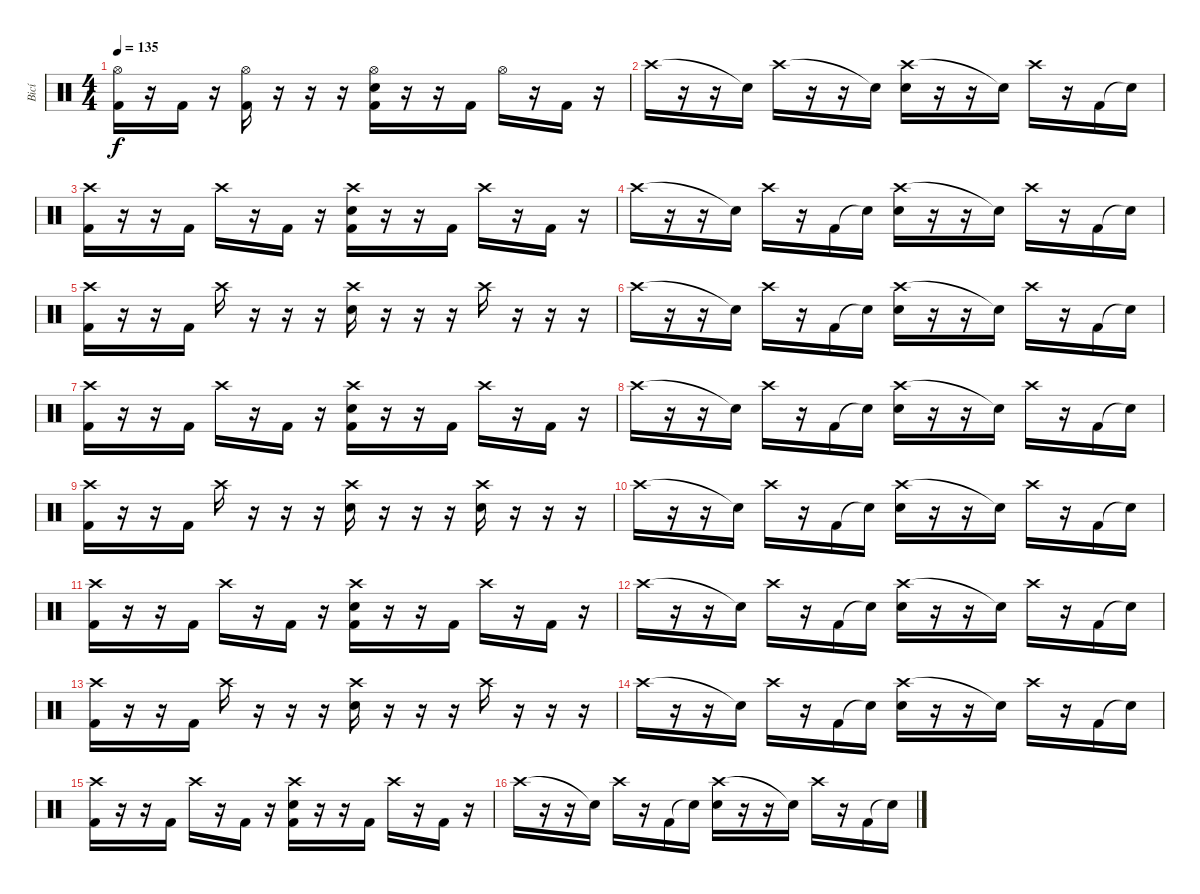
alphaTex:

\track ("Bicí" "Bicí") {instrument percussion}
\staff {score}
\articulation defaults
\ts (4 4)
\tempo 135
\clef neutral
\ks c
("Hi-Hat (open)" "Kick (hit) 2").16{dy f} r.16 "Kick (hit) 2".16 r.16 ("Hi-Hat (open)" "Kick (hit) 2").16 r.16 r.16 r.16 ("Hi-Hat (open)" "Electric Snare (hit)" "Kick (hit) 2").16 r.16 r.16 "Kick (hit) 2".16 "Hi-Hat (open)".16 r.16 "Kick (hit) 2".16 r.16 |
"Crash high (hit)".16 r.16 r.16 "Snare (hit)"{t}.16 "Crash high (hit)".16 r.16 r.16 "Snare (hit)"{t}.16 ("Crash high (hit)" "Electric Snare (hit)").16 r.16 r.16 "Snare (hit)"{t}.16 "Crash high (hit)".16 r.16 "Kick (hit) 2".16 "Snare (hit)"{t}.16 |
("Crash high (hit)" "Kick (hit) 2").16 r.16 r.16 "Kick (hit) 2".16 "Crash high (hit)".16 r.16 "Kick (hit) 2".16 r.16 ("Crash high (hit)" "Electric Snare (hit)" "Kick (hit) 2").16 r.16 r.16 "Kick (hit) 2".16 "Crash high (hit)".16 r.16 "Kick (hit) 2".16 r.16 |
"Crash high (hit)".16 r.16 r.16 "Snare (hit)"{t}.16 "Crash high (hit)".16 r.16 "Kick (hit) 2".16 "Snare (hit)"{t}.16 ("Crash high (hit)" "Electric Snare (hit)").16 r.16 r.16 "Snare (hit)"{t}.16 "Crash high (hit)".16 r.16 "Kick (hit) 2".16 "Snare (hit)"{t}.16 |
("Crash high (hit)" "Kick (hit) 2").16 r.16 r.16 "Kick (hit) 2".16 "Crash high (hit)".16 r.16 r.16 r.16 ("Crash high (hit)" "Electric Snare (hit)").16 r.16 r.16 r.16 "Crash high (hit)".16 r.16 r.16 r.16 |
"Crash high (hit)".16 r.16 r.16 "Snare (hit)"{t}.16 "Crash high (hit)".16 r.16 "Kick (hit) 2".16 "Snare (hit)"{t}.16 ("Crash high (hit)" "Electric Snare (hit)").16 r.16 r.16 "Snare (hit)"{t}.16 "Crash high (hit)".16 r.16 "Kick (hit) 2".16 "Snare (hit)"{t}.16 |
("Crash high (hit)" "Kick (hit) 2").16 r.16 r.16 "Kick (hit) 2".16 "Crash high (hit)".16 r.16 "Kick (hit) 2".16 r.16 ("Crash high (hit)" "Electric Snare (hit)" "Kick (hit) 2").16 r.16 r.16 "Kick (hit) 2".16 "Crash high (hit)".16 r.16 "Kick (hit) 2".16 r.16 |
"Crash high (hit)".16 r.16 r.16 "Snare (hit)"{t}.16 "Crash high (hit)".16 r.16 "Kick (hit) 2".16 "Snare (hit)"{t}.16 ("Crash high (hit)" "Electric Snare (hit)").16 r.16 r.16 "Snare (hit)"{t}.16 "Crash high (hit)".16 r.16 "Kick (hit) 2".16 "Snare (hit)"{t}.16 |
("Crash high (hit)" "Kick (hit) 2").16 r.16 r.16 "Kick (hit) 2".16 "Crash high (hit)".16 r.16 r.16 r.16 ("Crash high (hit)" "Electric Snare (hit)").16 r.16 r.16 r.16 ("Crash high (hit)" "Electric Snare (hit)").16 r.16 r.16 r.16 |
"Crash high (hit)".16 r.16 r.16 "Snare (hit)"{t}.16 "Crash high (hit)".16 r.16 "Kick (hit) 2".16 "Snare (hit)"{t}.16 ("Crash high (hit)" "Electric Snare (hit)").16 r.16 r.16 "Snare (hit)"{t}.16 "Crash high (hit)".16 r.16 "Kick (hit) 2".16 "Snare (hit)"{t}.16 |
("Crash high (hit)" "Kick (hit) 2").16 r.16 r.16 "Kick (hit) 2".16 "Crash high (hit)".16 r.16 "Kick (hit) 2".16 r.16 ("Crash high (hit)" "Electric Snare (hit)" "Kick (hit) 2").16 r.16 r.16 "Kick (hit) 2".16 "Crash high (hit)".16 r.16 "Kick (hit) 2".16 r.16 |
"Crash high (hit)".16 r.16 r.16 "Snare (hit)"{t}.16 "Crash high (hit)".16 r.16 "Kick (hit) 2".16 "Snare (hit)"{t}.16 ("Crash high (hit)" "Electric Snare (hit)").16 r.16 r.16 "Snare (hit)"{t}.16 "Crash high (hit)".16 r.16 "Kick (hit) 2".16 "Snare (hit)"{t}.16 |
("Crash high (hit)" "Kick (hit) 2").16 r.16 r.16 "Kick (hit) 2".16 "Crash high (hit)".16 r.16 r.16 r.16 ("Crash high (hit)" "Electric Snare (hit)").16 r.16 r.16 r.16 "Crash high (hit)".16 r.16 r.16 r.16 |
"Crash high (hit)".16 r.16 r.16 "Snare (hit)"{t}.16 "Crash high (hit)".16 r.16 "Kick (hit) 2".16 "Snare (hit)"{t}.16 ("Crash high (hit)" "Electric Snare (hit)").16 r.16 r.16 "Snare (hit)"{t}.16 "Crash high (hit)".16 r.16 "Kick (hit) 2".16 "Snare (hit)"{t}.16 |
("Crash high (hit)" "Kick (hit) 2").16 r.16 r.16 "Kick (hit) 2".16 "Crash high (hit)".16 r.16 "Kick (hit) 2".16 r.16 ("Crash high (hit)" "Electric Snare (hit)" "Kick (hit) 2").16 r.16 r.16 "Kick (hit) 2".16 "Crash high (hit)".16 r.16 "Kick (hit) 2".16 r.16 |
"Crash high (hit)".16 r.16 r.16 "Snare (hit)"{t}.16 "Crash high (hit)".16 r.16 "Kick (hit) 2".16 "Snare (hit)"{t}.16 ("Crash high (hit)" "Electric Snare (hit)").16 r.16 r.16 "Snare (hit)"{t}.16 "Crash high (hit)".16 r.16 "Kick (hit) 2".16 "Snare (hit)"{t}.16
